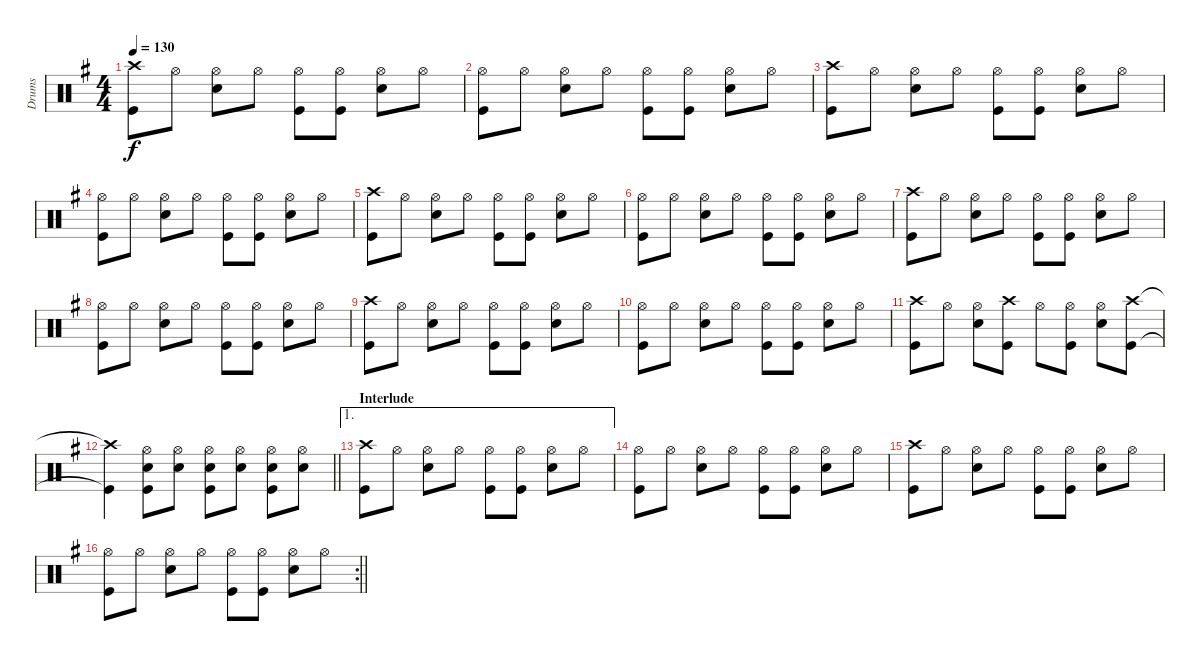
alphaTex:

\track ("Drums" "Drums") {instrument percussion}
\staff {score}
\articulation defaults
\ts (4 4)
\tempo 130
\clef neutral
\ks g
("Crash high (hit)" "Kick (hit)").8{dy f} "Hi-Hat (open)".8 ("Hi-Hat (open)" "Snare (hit) 2").8 "Hi-Hat (open)".8 ("Hi-Hat (open)" "Kick (hit)").8 ("Hi-Hat (open)" "Kick (hit)").8 ("Hi-Hat (open)" "Snare (hit) 2").8 "Hi-Hat (open)".8 |
("Hi-Hat (open)" "Kick (hit)").8 "Hi-Hat (open)".8 ("Hi-Hat (open)" "Snare (hit) 2").8 "Hi-Hat (open)".8 ("Hi-Hat (open)" "Kick (hit)").8 ("Hi-Hat (open)" "Kick (hit)").8 ("Hi-Hat (open)" "Snare (hit) 2").8 "Hi-Hat (open)".8 |
("Crash high (hit)" "Kick (hit)").8 "Hi-Hat (open)".8 ("Hi-Hat (open)" "Snare (hit) 2").8 "Hi-Hat (open)".8 ("Hi-Hat (open)" "Kick (hit)").8 ("Hi-Hat (open)" "Kick (hit)").8 ("Hi-Hat (open)" "Snare (hit) 2").8 "Hi-Hat (open)".8 |
("Hi-Hat (open)" "Kick (hit)").8 "Hi-Hat (open)".8 ("Hi-Hat (open)" "Snare (hit) 2").8 "Hi-Hat (open)".8 ("Hi-Hat (open)" "Kick (hit)").8 ("Hi-Hat (open)" "Kick (hit)").8 ("Hi-Hat (open)" "Snare (hit) 2").8 "Hi-Hat (open)".8 |
("Crash high (hit)" "Kick (hit)").8 "Hi-Hat (open)".8 ("Hi-Hat (open)" "Snare (hit) 2").8 "Hi-Hat (open)".8 ("Hi-Hat (open)" "Kick (hit)").8 ("Hi-Hat (open)" "Kick (hit)").8 ("Hi-Hat (open)" "Snare (hit) 2").8 "Hi-Hat (open)".8 |
("Hi-Hat (open)" "Kick (hit)").8 "Hi-Hat (open)".8 ("Hi-Hat (open)" "Snare (hit) 2").8 "Hi-Hat (open)".8 ("Hi-Hat (open)" "Kick (hit)").8 ("Hi-Hat (open)" "Kick (hit)").8 ("Hi-Hat (open)" "Snare (hit) 2").8 "Hi-Hat (open)".8 |
("Crash high (hit)" "Kick (hit)").8 "Hi-Hat (open)".8 ("Hi-Hat (open)" "Snare (hit) 2").8 "Hi-Hat (open)".8 ("Hi-Hat (open)" "Kick (hit)").8 ("Hi-Hat (open)" "Kick (hit)").8 ("Hi-Hat (open)" "Snare (hit) 2").8 "Hi-Hat (open)".8 |
("Hi-Hat (open)" "Kick (hit)").8 "Hi-Hat (open)".8 ("Hi-Hat (open)" "Snare (hit) 2").8 "Hi-Hat (open)".8 ("Hi-Hat (open)" "Kick (hit)").8 ("Hi-Hat (open)" "Kick (hit)").8 ("Hi-Hat (open)" "Snare (hit) 2").8 "Hi-Hat (open)".8 |
("Crash high (hit)" "Kick (hit)").8 "Hi-Hat (open)".8 ("Hi-Hat (open)" "Snare (hit) 2").8 "Hi-Hat (open)".8 ("Hi-Hat (open)" "Kick (hit)").8 ("Hi-Hat (open)" "Kick (hit)").8 ("Hi-Hat (open)" "Snare (hit) 2").8 "Hi-Hat (open)".8 |
("Hi-Hat (open)" "Kick (hit)").8 "Hi-Hat (open)".8 ("Hi-Hat (open)" "Snare (hit) 2").8 "Hi-Hat (open)".8 ("Hi-Hat (open)" "Kick (hit)").8 ("Hi-Hat (open)" "Kick (hit)").8 ("Hi-Hat (open)" "Snare (hit) 2").8 "Hi-Hat (open)".8 |
("Crash high (hit)" "Kick (hit)").8 "Hi-Hat (open)".8 ("Hi-Hat (open)" "Snare (hit) 2").8 ("Crash high (hit)" "Kick (hit)").8 "Hi-Hat (open)".8 ("Hi-Hat (open)" "Kick (hit)").8 ("Hi-Hat (open)" "Snare (hit) 2").8 ("Crash high (hit)" "Kick (hit)").8 |
\barLineRight lightlight
("Crash high (hit)"{t} "Kick (hit)"{t}).4 ("Hi-Hat (open)" "Snare (hit) 2" "Kick (hit)").8 ("Hi-Hat (open)" "Snare (hit) 2").8 ("Hi-Hat (open)" "Snare (hit) 2" "Kick (hit)").8 ("Hi-Hat (open)" "Snare (hit) 2").8 ("Hi-Hat (open)" "Snare (hit) 2" "Kick (hit)").8 ("Hi-Hat (open)" "Snare (hit) 2").8 |
\ae 1
\section ("" "Interlude")
("Crash high (hit)" "Kick (hit)").8 "Hi-Hat (open)".8 ("Hi-Hat (open)" "Snare (hit) 2").8 "Hi-Hat (open)".8 ("Hi-Hat (open)" "Kick (hit)").8 ("Hi-Hat (open)" "Kick (hit)").8 ("Hi-Hat (open)" "Snare (hit) 2").8 "Hi-Hat (open)".8 |
("Hi-Hat (open)" "Kick (hit)").8 "Hi-Hat (open)".8 ("Hi-Hat (open)" "Snare (hit) 2").8 "Hi-Hat (open)".8 ("Hi-Hat (open)" "Kick (hit)").8 ("Hi-Hat (open)" "Kick (hit)").8 ("Hi-Hat (open)" "Snare (hit) 2").8 "Hi-Hat (open)".8 |
("Crash high (hit)" "Kick (hit)").8 "Hi-Hat (open)".8 ("Hi-Hat (open)" "Snare (hit) 2").8 "Hi-Hat (open)".8 ("Hi-Hat (open)" "Kick (hit)").8 ("Hi-Hat (open)" "Kick (hit)").8 ("Hi-Hat (open)" "Snare (hit) 2").8 "Hi-Hat (open)".8 |
\rc 2
\barLineRight lightlight
("Hi-Hat (open)" "Kick (hit)").8 "Hi-Hat (open)".8 ("Hi-Hat (open)" "Snare (hit) 2").8 "Hi-Hat (open)".8 ("Hi-Hat (open)" "Kick (hit)").8 ("Hi-Hat (open)" "Kick (hit)").8 ("Hi-Hat (open)" "Snare (hit) 2").8 "Hi-Hat (open)".8
